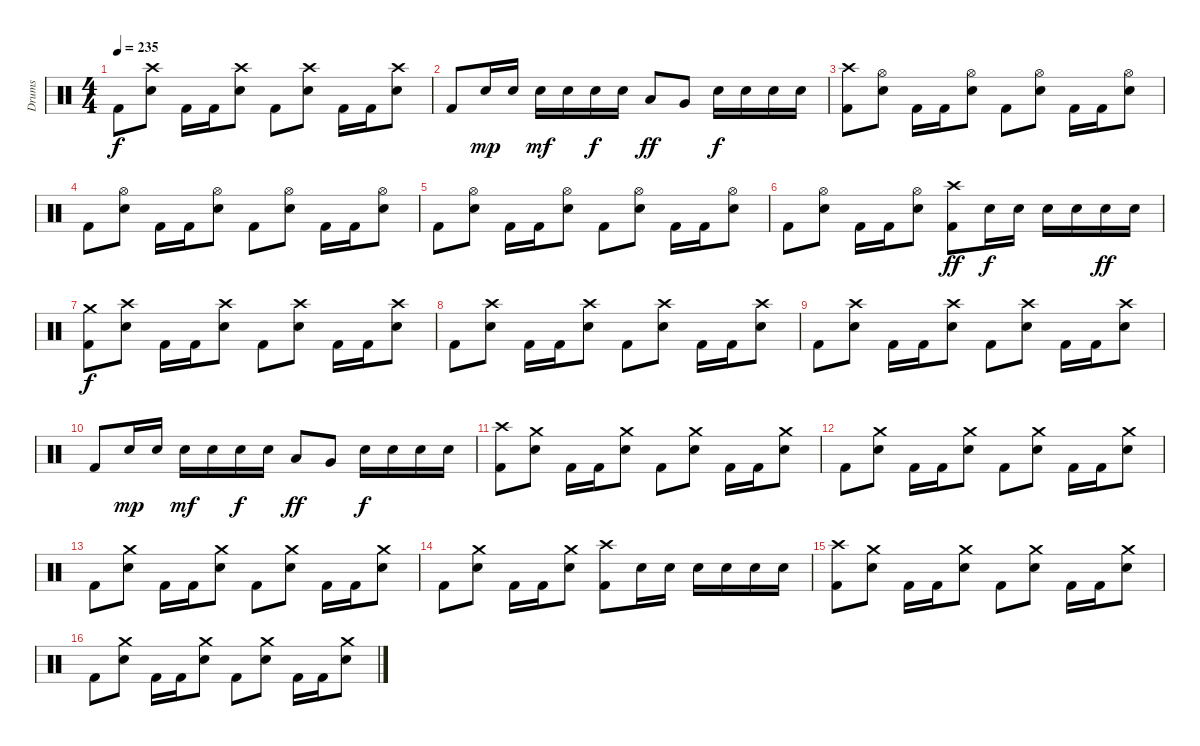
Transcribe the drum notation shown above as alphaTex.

\track ("Drums" "Drums") {instrument percussion}
\staff {score}
\articulation defaults
\ts (4 4)
\tempo 235
\clef neutral
\ks c "Kick (hit) 2".8{dy f}
("Crash high (hit)" "Electric Snare (hit)").8 "Kick (hit) 2".16 "Kick (hit) 2".16 ("Crash high (hit)" "Electric Snare (hit)").8 "Kick (hit) 2".8 ("Crash high (hit)" "Electric Snare (hit)").8 "Kick (hit) 2".16 "Kick (hit) 2".16 ("Crash high (hit)" "Electric Snare (hit)").8 |
"Kick (hit) 2".8 "Electric Snare (hit)".16{dy mp} "Electric Snare (hit)".16 "Electric Snare (hit)".16{dy mf} "Electric Snare (hit)".16 "Electric Snare (hit)".16{dy f} "Electric Snare (hit)".16 "Low Tom (hit)".8{dy ff} "Very Low Tom (hit)".8 "Electric Snare (hit)".16{dy f} "Electric Snare (hit)".16 "Electric Snare (hit)".16 "Electric Snare (hit)".16 |
("Crash high (hit)" "Kick (hit) 2").8 ("Hi-Hat (open)" "Electric Snare (hit)").8 "Kick (hit) 2".16 "Kick (hit) 2".16 ("Hi-Hat (open)" "Electric Snare (hit)").8 "Kick (hit) 2".8 ("Hi-Hat (open)" "Electric Snare (hit)").8 "Kick (hit) 2".16 "Kick (hit) 2".16 ("Hi-Hat (open)" "Electric Snare (hit)").8 |
"Kick (hit) 2".8 ("Hi-Hat (open)" "Electric Snare (hit)").8 "Kick (hit) 2".16 "Kick (hit) 2".16 ("Hi-Hat (open)" "Electric Snare (hit)").8 "Kick (hit) 2".8 ("Hi-Hat (open)" "Electric Snare (hit)").8 "Kick (hit) 2".16 "Kick (hit) 2".16 ("Hi-Hat (open)" "Electric Snare (hit)").8 |
"Kick (hit) 2".8 ("Hi-Hat (open)" "Electric Snare (hit)").8 "Kick (hit) 2".16 "Kick (hit) 2".16 ("Hi-Hat (open)" "Electric Snare (hit)").8 "Kick (hit) 2".8 ("Hi-Hat (open)" "Electric Snare (hit)").8 "Kick (hit) 2".16 "Kick (hit) 2".16 ("Hi-Hat (open)" "Electric Snare (hit)").8 |
"Kick (hit) 2".8 ("Hi-Hat (open)" "Electric Snare (hit)").8 "Kick (hit) 2".16 "Kick (hit) 2".16 ("Hi-Hat (open)" "Electric Snare (hit)").8 ("Crash high (hit)" "Kick (hit) 2").8{dy ff} "Electric Snare (hit)".16{dy f} "Electric Snare (hit)".16 "Electric Snare (hit)".16 "Electric Snare (hit)".16 "Electric Snare (hit)".16{dy ff} "Electric Snare (hit)".16 |
("Crash medium (hit)" "Kick (hit) 2").8{dy f} ("Crash high (hit)" "Electric Snare (hit)").8 "Kick (hit) 2".16 "Kick (hit) 2".16 ("Crash high (hit)" "Electric Snare (hit)").8 "Kick (hit) 2".8 ("Crash high (hit)" "Electric Snare (hit)").8 "Kick (hit) 2".16 "Kick (hit) 2".16 ("Crash high (hit)" "Electric Snare (hit)").8 |
"Kick (hit) 2".8 ("Crash high (hit)" "Electric Snare (hit)").8 "Kick (hit) 2".16 "Kick (hit) 2".16 ("Crash high (hit)" "Electric Snare (hit)").8 "Kick (hit) 2".8 ("Crash high (hit)" "Electric Snare (hit)").8 "Kick (hit) 2".16 "Kick (hit) 2".16 ("Crash high (hit)" "Electric Snare (hit)").8 |
"Kick (hit) 2".8 ("Crash high (hit)" "Electric Snare (hit)").8 "Kick (hit) 2".16 "Kick (hit) 2".16 ("Crash high (hit)" "Electric Snare (hit)").8 "Kick (hit) 2".8 ("Crash high (hit)" "Electric Snare (hit)").8 "Kick (hit) 2".16 "Kick (hit) 2".16 ("Crash high (hit)" "Electric Snare (hit)").8 |
"Kick (hit) 2".8 "Electric Snare (hit)".16{dy mp} "Electric Snare (hit)".16 "Electric Snare (hit)".16{dy mf} "Electric Snare (hit)".16 "Electric Snare (hit)".16{dy f} "Electric Snare (hit)".16 "Low Tom (hit)".8{dy ff} "Very Low Tom (hit)".8 "Electric Snare (hit)".16{dy f} "Electric Snare (hit)".16 "Electric Snare (hit)".16 "Electric Snare (hit)".16 |
("Crash high (hit)" "Kick (hit) 2").8 ("Crash medium (hit)" "Electric Snare (hit)").8 "Kick (hit) 2".16 "Kick (hit) 2".16 ("Crash medium (hit)" "Electric Snare (hit)").8 "Kick (hit) 2".8 ("Crash medium (hit)" "Electric Snare (hit)").8 "Kick (hit) 2".16 "Kick (hit) 2".16 ("Crash medium (hit)" "Electric Snare (hit)").8 |
"Kick (hit) 2".8 ("Crash medium (hit)" "Electric Snare (hit)").8 "Kick (hit) 2".16 "Kick (hit) 2".16 ("Crash medium (hit)" "Electric Snare (hit)").8 "Kick (hit) 2".8 ("Crash medium (hit)" "Electric Snare (hit)").8 "Kick (hit) 2".16 "Kick (hit) 2".16 ("Crash medium (hit)" "Electric Snare (hit)").8 |
"Kick (hit) 2".8 ("Crash medium (hit)" "Electric Snare (hit)").8 "Kick (hit) 2".16 "Kick (hit) 2".16 ("Crash medium (hit)" "Electric Snare (hit)").8 "Kick (hit) 2".8 ("Crash medium (hit)" "Electric Snare (hit)").8 "Kick (hit) 2".16 "Kick (hit) 2".16 ("Crash medium (hit)" "Electric Snare (hit)").8 |
"Kick (hit) 2".8 ("Crash medium (hit)" "Electric Snare (hit)").8 "Kick (hit) 2".16 "Kick (hit) 2".16 ("Crash medium (hit)" "Electric Snare (hit)").8 ("Crash high (hit)" "Kick (hit) 2").8 "Electric Snare (hit)".16 "Electric Snare (hit)".16 "Electric Snare (hit)".16 "Electric Snare (hit)".16 "Electric Snare (hit)".16 "Electric Snare (hit)".16 |
("Crash high (hit)" "Kick (hit) 2").8 ("Crash medium (hit)" "Electric Snare (hit)").8 "Kick (hit) 2".16 "Kick (hit) 2".16 ("Crash medium (hit)" "Electric Snare (hit)").8 "Kick (hit) 2".8 ("Crash medium (hit)" "Electric Snare (hit)").8 "Kick (hit) 2".16 "Kick (hit) 2".16 ("Crash medium (hit)" "Electric Snare (hit)").8 |
"Kick (hit) 2".8 ("Crash medium (hit)" "Electric Snare (hit)").8 "Kick (hit) 2".16 "Kick (hit) 2".16 ("Crash medium (hit)" "Electric Snare (hit)").8 "Kick (hit) 2".8 ("Crash medium (hit)" "Electric Snare (hit)").8 "Kick (hit) 2".16 "Kick (hit) 2".16 ("Crash medium (hit)" "Electric Snare (hit)").8
